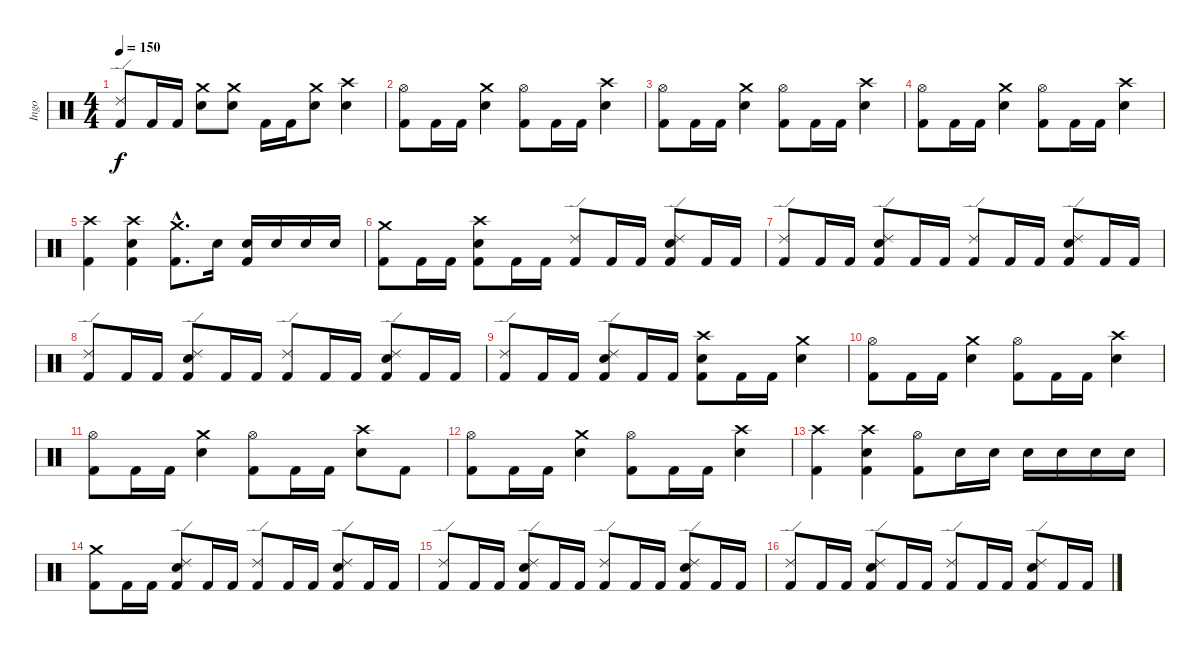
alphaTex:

\track ("Ingo" "Ingo") {instrument percussion}
\staff {score}
\articulation defaults
\ts (4 4)
\tempo 150
\clef neutral
\ks c
("Ride (edge) 2" "Kick (hit) 2").8{dy f} "Kick (hit) 2".16 "Kick (hit) 2".16 ("Crash medium (hit)" "Electric Snare (hit)").8 ("Crash medium (hit)" "Electric Snare (hit)").8 "Kick (hit) 2".16 "Kick (hit) 2".16 ("Crash medium (hit)" "Electric Snare (hit)").8 ("Crash high (hit)" "Electric Snare (hit)").4 |
("Hi-Hat (open)" "Kick (hit) 2").8 "Kick (hit) 2".16 "Kick (hit) 2".16 ("Crash medium (hit)" "Electric Snare (hit)").4 ("Hi-Hat (open)" "Kick (hit) 2").8 "Kick (hit) 2".16 "Kick (hit) 2".16 ("Crash high (hit)" "Electric Snare (hit)").4 |
("Hi-Hat (open)" "Kick (hit) 2").8 "Kick (hit) 2".16 "Kick (hit) 2".16 ("Crash medium (hit)" "Electric Snare (hit)").4 ("Hi-Hat (open)" "Kick (hit) 2").8 "Kick (hit) 2".16 "Kick (hit) 2".16 ("Crash high (hit)" "Electric Snare (hit)").4 |
("Hi-Hat (open)" "Kick (hit) 2").8 "Kick (hit) 2".16 "Kick (hit) 2".16 ("Crash medium (hit)" "Electric Snare (hit)").4 ("Hi-Hat (open)" "Kick (hit) 2").8 "Kick (hit) 2".16 "Kick (hit) 2".16 ("Crash high (hit)" "Electric Snare (hit)").4 |
("Crash high (hit)" "Kick (hit) 2").4 ("Crash high (hit)" "Electric Snare (hit)" "Kick (hit) 2").4 ("Crash medium (hit)"{hac} "Kick (hit) 2"{hac}).8{d} "Electric Snare (hit)".16 ("Electric Snare (hit)" "Kick (hit) 2").16 "Electric Snare (hit)".16 "Electric Snare (hit)".16 "Electric Snare (hit)".16 |
("Crash medium (hit)" "Kick (hit) 2").8 "Kick (hit) 2".16 "Kick (hit) 2".16 ("Crash high (hit)" "Electric Snare (hit)" "Kick (hit) 2").8 "Kick (hit) 2".16 "Kick (hit) 2".16 ("Ride (edge) 2" "Kick (hit) 2").8 "Kick (hit) 2".16 "Kick (hit) 2".16 ("Ride (edge) 2" "Electric Snare (hit)" "Kick (hit) 2").8 "Kick (hit) 2".16 "Kick (hit) 2".16 |
("Ride (edge) 2" "Kick (hit) 2").8 "Kick (hit) 2".16 "Kick (hit) 2".16 ("Ride (edge) 2" "Electric Snare (hit)" "Kick (hit) 2").8 "Kick (hit) 2".16 "Kick (hit) 2".16 ("Ride (edge) 2" "Kick (hit) 2").8 "Kick (hit) 2".16 "Kick (hit) 2".16 ("Ride (edge) 2" "Electric Snare (hit)" "Kick (hit) 2").8 "Kick (hit) 2".16 "Kick (hit) 2".16 |
("Ride (edge) 2" "Kick (hit) 2").8 "Kick (hit) 2".16 "Kick (hit) 2".16 ("Ride (edge) 2" "Electric Snare (hit)" "Kick (hit) 2").8 "Kick (hit) 2".16 "Kick (hit) 2".16 ("Ride (edge) 2" "Kick (hit) 2").8 "Kick (hit) 2".16 "Kick (hit) 2".16 ("Ride (edge) 2" "Electric Snare (hit)" "Kick (hit) 2").8 "Kick (hit) 2".16 "Kick (hit) 2".16 |
("Ride (edge) 2" "Kick (hit) 2").8 "Kick (hit) 2".16 "Kick (hit) 2".16 ("Ride (edge) 2" "Electric Snare (hit)" "Kick (hit) 2").8 "Kick (hit) 2".16 "Kick (hit) 2".16 ("Crash high (hit)" "Electric Snare (hit)" "Kick (hit) 2").8 "Kick (hit) 2".16 "Kick (hit) 2".16 ("Crash medium (hit)" "Electric Snare (hit)").4 |
("Hi-Hat (open)" "Kick (hit) 2").8 "Kick (hit) 2".16 "Kick (hit) 2".16 ("Crash medium (hit)" "Electric Snare (hit)").4 ("Hi-Hat (open)" "Kick (hit) 2").8 "Kick (hit) 2".16 "Kick (hit) 2".16 ("Crash high (hit)" "Electric Snare (hit)").4 |
("Hi-Hat (open)" "Kick (hit) 2").8 "Kick (hit) 2".16 "Kick (hit) 2".16 ("Crash medium (hit)" "Electric Snare (hit)").4 ("Hi-Hat (open)" "Kick (hit) 2").8 "Kick (hit) 2".16 "Kick (hit) 2".16 ("Crash high (hit)" "Electric Snare (hit)").8 "Kick (hit) 2".8 |
("Hi-Hat (open)" "Kick (hit) 2").8 "Kick (hit) 2".16 "Kick (hit) 2".16 ("Crash medium (hit)" "Electric Snare (hit)").4 ("Hi-Hat (open)" "Kick (hit) 2").8 "Kick (hit) 2".16 "Kick (hit) 2".16 ("Crash high (hit)" "Electric Snare (hit)").4 |
("Crash high (hit)" "Kick (hit) 2").4 ("Crash high (hit)" "Electric Snare (hit)" "Kick (hit) 2").4 ("Hi-Hat (open)" "Kick (hit) 2").8 "Electric Snare (hit)".16 "Electric Snare (hit)".16 "Electric Snare (hit)".16 "Electric Snare (hit)".16 "Electric Snare (hit)".16 "Electric Snare (hit)".16 |
("Crash medium (hit)" "Kick (hit) 2").8 "Kick (hit) 2".16 "Kick (hit) 2".16 ("Ride (edge) 2" "Electric Snare (hit)" "Kick (hit) 2").8 "Kick (hit) 2".16 "Kick (hit) 2".16 ("Ride (edge) 2" "Kick (hit) 2").8 "Kick (hit) 2".16 "Kick (hit) 2".16 ("Ride (edge) 2" "Electric Snare (hit)" "Kick (hit) 2").8 "Kick (hit) 2".16 "Kick (hit) 2".16 |
("Ride (edge) 2" "Kick (hit) 2").8 "Kick (hit) 2".16 "Kick (hit) 2".16 ("Ride (edge) 2" "Electric Snare (hit)" "Kick (hit) 2").8 "Kick (hit) 2".16 "Kick (hit) 2".16 ("Ride (edge) 2" "Kick (hit) 2").8 "Kick (hit) 2".16 "Kick (hit) 2".16 ("Ride (edge) 2" "Electric Snare (hit)" "Kick (hit) 2").8 "Kick (hit) 2".16 "Kick (hit) 2".16 |
("Ride (edge) 2" "Kick (hit) 2").8 "Kick (hit) 2".16 "Kick (hit) 2".16 ("Ride (edge) 2" "Electric Snare (hit)" "Kick (hit) 2").8 "Kick (hit) 2".16 "Kick (hit) 2".16 ("Ride (edge) 2" "Kick (hit) 2").8 "Kick (hit) 2".16 "Kick (hit) 2".16 ("Ride (edge) 2" "Electric Snare (hit)" "Kick (hit) 2").8 "Kick (hit) 2".16 "Kick (hit) 2".16
